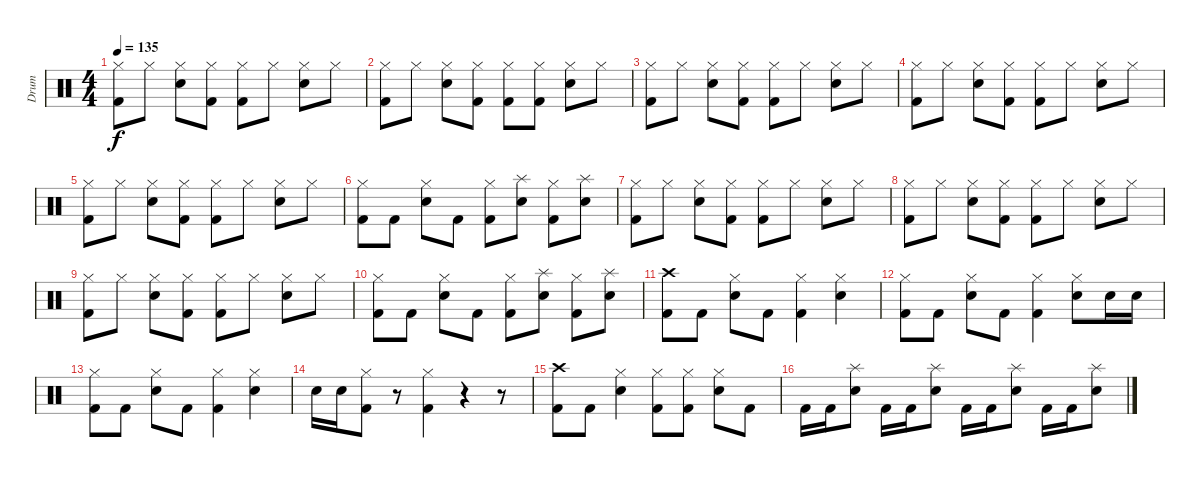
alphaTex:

\track ("Drum" "Drum") {instrument percussion}
\staff {score}
\articulation defaults
\ts (4 4)
\tempo 135
\clef neutral
\ks c
("Hi-Hat (closed)" "Kick (hit) 2").8{dy f} "Hi-Hat (closed)".8 ("Electric Snare (hit)" "Hi-Hat (closed)").8 ("Kick (hit) 2" "Hi-Hat (closed)").8 ("Kick (hit) 2" "Hi-Hat (closed)").8 "Hi-Hat (closed)".8 ("Electric Snare (hit)" "Hi-Hat (closed)").8 "Hi-Hat (closed)".8 |
("Hi-Hat (closed)" "Kick (hit) 2").8 "Hi-Hat (closed)".8 ("Hi-Hat (closed)" "Electric Snare (hit)").8 ("Hi-Hat (closed)" "Kick (hit) 2").8 ("Hi-Hat (closed)" "Kick (hit) 2").8 ("Hi-Hat (closed)" "Kick (hit) 2").8 ("Electric Snare (hit)" "Hi-Hat (closed)").8 "Hi-Hat (closed)".8 |
("Hi-Hat (closed)" "Kick (hit) 2").8 "Hi-Hat (closed)".8 ("Electric Snare (hit)" "Hi-Hat (closed)").8 ("Kick (hit) 2" "Hi-Hat (closed)").8 ("Kick (hit) 2" "Hi-Hat (closed)").8 "Hi-Hat (closed)".8 ("Electric Snare (hit)" "Hi-Hat (closed)").8 "Hi-Hat (closed)".8 |
("Hi-Hat (closed)" "Kick (hit) 2").8 "Hi-Hat (closed)".8 ("Hi-Hat (closed)" "Electric Snare (hit)").8 ("Hi-Hat (closed)" "Kick (hit) 2").8 ("Hi-Hat (closed)" "Kick (hit) 2").8 "Hi-Hat (closed)".8 ("Electric Snare (hit)" "Hi-Hat (closed)").8 "Hi-Hat (closed)".8 |
("Hi-Hat (closed)" "Kick (hit) 2").8 "Hi-Hat (closed)".8 ("Electric Snare (hit)" "Hi-Hat (closed)").8 ("Kick (hit) 2" "Hi-Hat (closed)").8 ("Kick (hit) 2" "Hi-Hat (closed)").8 "Hi-Hat (closed)".8 ("Electric Snare (hit)" "Hi-Hat (closed)").8 "Hi-Hat (closed)".8 |
("Hi-Hat (closed)" "Kick (hit) 2").8 "Kick (hit) 2".8 ("Hi-Hat (closed)" "Electric Snare (hit)").8 "Kick (hit) 2".8 ("Hi-Hat (closed)" "Kick (hit) 2").8 ("Splash (hit)" "Electric Snare (hit)").8 ("Hi-Hat (closed)" "Kick (hit) 2").8 ("Electric Snare (hit)" "Splash (hit)").8 |
("Hi-Hat (closed)" "Kick (hit) 2").8 "Hi-Hat (closed)".8 ("Electric Snare (hit)" "Hi-Hat (closed)").8 ("Kick (hit) 2" "Hi-Hat (closed)").8 ("Kick (hit) 2" "Hi-Hat (closed)").8 "Hi-Hat (closed)".8 ("Electric Snare (hit)" "Hi-Hat (closed)").8 "Hi-Hat (closed)".8 |
("Hi-Hat (closed)" "Kick (hit) 2").8 "Hi-Hat (closed)".8 ("Hi-Hat (closed)" "Electric Snare (hit)").8 ("Hi-Hat (closed)" "Kick (hit) 2").8 ("Hi-Hat (closed)" "Kick (hit) 2").8 "Hi-Hat (closed)".8 ("Electric Snare (hit)" "Hi-Hat (closed)").8 "Hi-Hat (closed)".8 |
("Hi-Hat (closed)" "Kick (hit) 2").8 "Hi-Hat (closed)".8 ("Electric Snare (hit)" "Hi-Hat (closed)").8 ("Kick (hit) 2" "Hi-Hat (closed)").8 ("Kick (hit) 2" "Hi-Hat (closed)").8 "Hi-Hat (closed)".8 ("Electric Snare (hit)" "Hi-Hat (closed)").8 "Hi-Hat (closed)".8 |
("Hi-Hat (closed)" "Kick (hit) 2").8 "Kick (hit) 2".8 ("Hi-Hat (closed)" "Electric Snare (hit)").8 "Kick (hit) 2".8 ("Hi-Hat (closed)" "Kick (hit) 2").8 ("Splash (hit)" "Electric Snare (hit)").8 ("Hi-Hat (closed)" "Kick (hit) 2").8 ("Electric Snare (hit)" "Splash (hit)").8 |
("Crash high (hit)" "Kick (hit) 2").8 "Kick (hit) 2".8 ("Hi-Hat (closed)" "Electric Snare (hit)").8 "Kick (hit) 2".8 ("Hi-Hat (closed)" "Kick (hit) 2").4 ("Hi-Hat (closed)" "Electric Snare (hit)").4 |
("Hi-Hat (closed)" "Kick (hit) 2").8 "Kick (hit) 2".8 ("Hi-Hat (closed)" "Electric Snare (hit)").8 "Kick (hit) 2".8 ("Hi-Hat (closed)" "Kick (hit) 2").4 ("Hi-Hat (closed)" "Electric Snare (hit)").8 "Electric Snare (hit)".16 "Electric Snare (hit)".16 |
("Hi-Hat (closed)" "Kick (hit) 2").8 "Kick (hit) 2".8 ("Hi-Hat (closed)" "Electric Snare (hit)").8 "Kick (hit) 2".8 ("Hi-Hat (closed)" "Kick (hit) 2").4 ("Hi-Hat (closed)" "Electric Snare (hit)").4 |
"Electric Snare (hit)".16 "Electric Snare (hit)".16 ("Hi-Hat (closed)" "Kick (hit) 2").8 r.8 ("Hi-Hat (closed)" "Kick (hit) 2").4 r.4 r.8 |
("Crash high (hit)" "Kick (hit) 2").8 "Kick (hit) 2".8 ("Hi-Hat (closed)" "Electric Snare (hit)").4 ("Hi-Hat (closed)" "Kick (hit) 2").8 ("Hi-Hat (closed)" "Kick (hit) 2").8 ("Electric Snare (hit)" "Hi-Hat (closed)").8 "Kick (hit) 2".8 |
"Kick (hit) 2".16 "Kick (hit) 2".16 ("Splash (hit)" "Electric Snare (hit)").8 "Kick (hit) 2".16 "Kick (hit) 2".16 ("Splash (hit)" "Electric Snare (hit)").8 "Kick (hit) 2".16 "Kick (hit) 2".16 ("Splash (hit)" "Electric Snare (hit)").8 "Kick (hit) 2".16 "Kick (hit) 2".16 ("Splash (hit)" "Electric Snare (hit)").8
